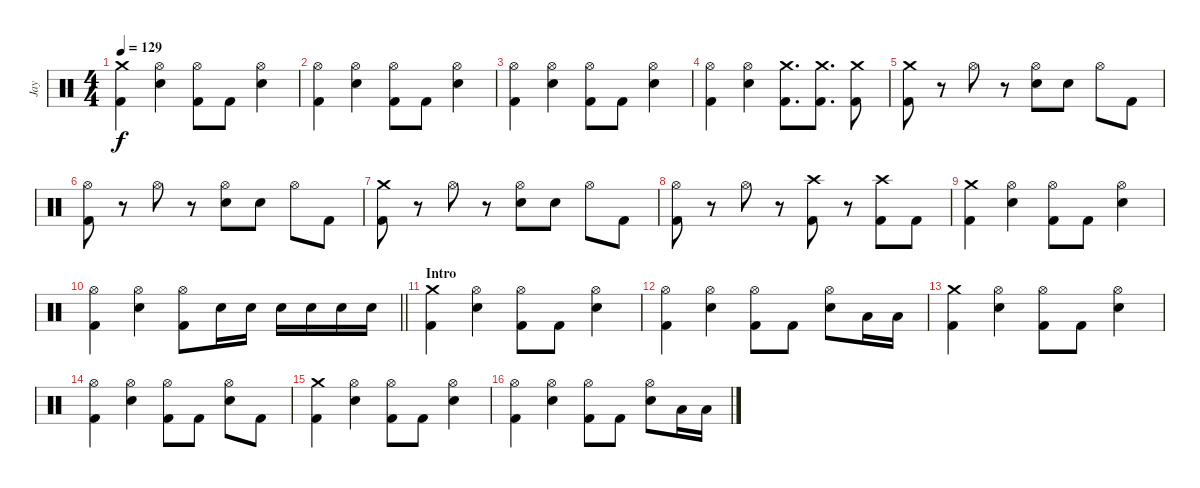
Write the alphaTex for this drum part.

\track ("Jay" "Jay") {instrument percussion}
\staff {score}
\articulation defaults
\ts (4 4)
\tempo 129
\clef neutral
\ks c
("Crash medium (hit)" "Kick (hit) 2").4{dy f} ("Hi-Hat (open)" "Electric Snare (hit)").4 ("Hi-Hat (open)" "Kick (hit) 2").8 "Kick (hit) 2".8 ("Hi-Hat (open)" "Electric Snare (hit)").4 |
("Hi-Hat (open)" "Kick (hit) 2").4 ("Hi-Hat (open)" "Electric Snare (hit)").4 ("Hi-Hat (open)" "Kick (hit) 2").8 "Kick (hit) 2".8 ("Hi-Hat (open)" "Electric Snare (hit)").4 |
("Hi-Hat (open)" "Kick (hit) 2").4 ("Hi-Hat (open)" "Electric Snare (hit)").4 ("Hi-Hat (open)" "Kick (hit) 2").8 "Kick (hit) 2".8 ("Hi-Hat (open)" "Electric Snare (hit)").4 |
("Hi-Hat (open)" "Kick (hit) 2").4 ("Hi-Hat (open)" "Electric Snare (hit)").4 ("Crash medium (hit)" "Kick (hit) 2").8{d} ("Crash medium (hit)" "Kick (hit) 2").8{d} ("Crash medium (hit)" "Kick (hit) 2").8 |
("Crash medium (hit)" "Kick (hit) 2").8 r.8 "Hi-Hat (open)".8 r.8 ("Hi-Hat (open)" "Electric Snare (hit)").8 "Electric Snare (hit)".8 "Hi-Hat (open)".8 "Kick (hit) 2".8 |
("Hi-Hat (open)" "Kick (hit) 2").8 r.8 "Hi-Hat (open)".8 r.8 ("Hi-Hat (open)" "Electric Snare (hit)").8 "Electric Snare (hit)".8 "Hi-Hat (open)".8 "Kick (hit) 2".8 |
("Crash medium (hit)" "Kick (hit) 2").8 r.8 "Hi-Hat (open)".8 r.8 ("Hi-Hat (open)" "Electric Snare (hit)").8 "Electric Snare (hit)".8 "Hi-Hat (open)".8 "Kick (hit) 2".8 |
("Hi-Hat (open)" "Kick (hit) 2").8 r.8 "Hi-Hat (open)".8 r.8 ("Crash high (hit)" "Kick (hit) 2").8 r.8 ("Crash high (hit)" "Kick (hit) 2").8 "Kick (hit) 2".8 |
("Crash medium (hit)" "Kick (hit) 2").4 ("Hi-Hat (open)" "Electric Snare (hit)").4 ("Hi-Hat (open)" "Kick (hit) 2").8 "Kick (hit) 2".8 ("Hi-Hat (open)" "Electric Snare (hit)").4 |
\barLineRight lightlight
("Hi-Hat (open)" "Kick (hit) 2").4 ("Hi-Hat (open)" "Electric Snare (hit)").4 ("Hi-Hat (open)" "Kick (hit) 2").8 "Electric Snare (hit)".16 "Electric Snare (hit)".16 "Electric Snare (hit)".16 "Electric Snare (hit)".16 "Electric Snare (hit)".16 "Electric Snare (hit)".16 |
\section ("" "Intro")
("Crash medium (hit)" "Kick (hit) 2").4 ("Hi-Hat (open)" "Electric Snare (hit)").4 ("Hi-Hat (open)" "Kick (hit) 2").8 "Kick (hit) 2".8 ("Hi-Hat (open)" "Electric Snare (hit)").4 |
("Hi-Hat (open)" "Kick (hit) 2").4 ("Hi-Hat (open)" "Electric Snare (hit)").4 ("Hi-Hat (open)" "Kick (hit) 2").8 "Kick (hit) 2".8 ("Hi-Hat (open)" "Electric Snare (hit)").8 "Low Tom (hit)".16 "Low Tom (hit)".16 |
("Crash medium (hit)" "Kick (hit) 2").4 ("Hi-Hat (open)" "Electric Snare (hit)").4 ("Hi-Hat (open)" "Kick (hit) 2").8 "Kick (hit) 2".8 ("Hi-Hat (open)" "Electric Snare (hit)").4 |
("Hi-Hat (open)" "Kick (hit) 2").4 ("Hi-Hat (open)" "Electric Snare (hit)").4 ("Hi-Hat (open)" "Kick (hit) 2").8 "Kick (hit) 2".8 ("Hi-Hat (open)" "Electric Snare (hit)").8 "Kick (hit) 2".8 |
("Crash medium (hit)" "Kick (hit) 2").4 ("Hi-Hat (open)" "Electric Snare (hit)").4 ("Hi-Hat (open)" "Kick (hit) 2").8 "Kick (hit) 2".8 ("Hi-Hat (open)" "Electric Snare (hit)").4 |
("Hi-Hat (open)" "Kick (hit) 2").4 ("Hi-Hat (open)" "Electric Snare (hit)").4 ("Hi-Hat (open)" "Kick (hit) 2").8 "Kick (hit) 2".8 ("Hi-Hat (open)" "Electric Snare (hit)").8 "Low Tom (hit)".16 "Low Tom (hit)".16
